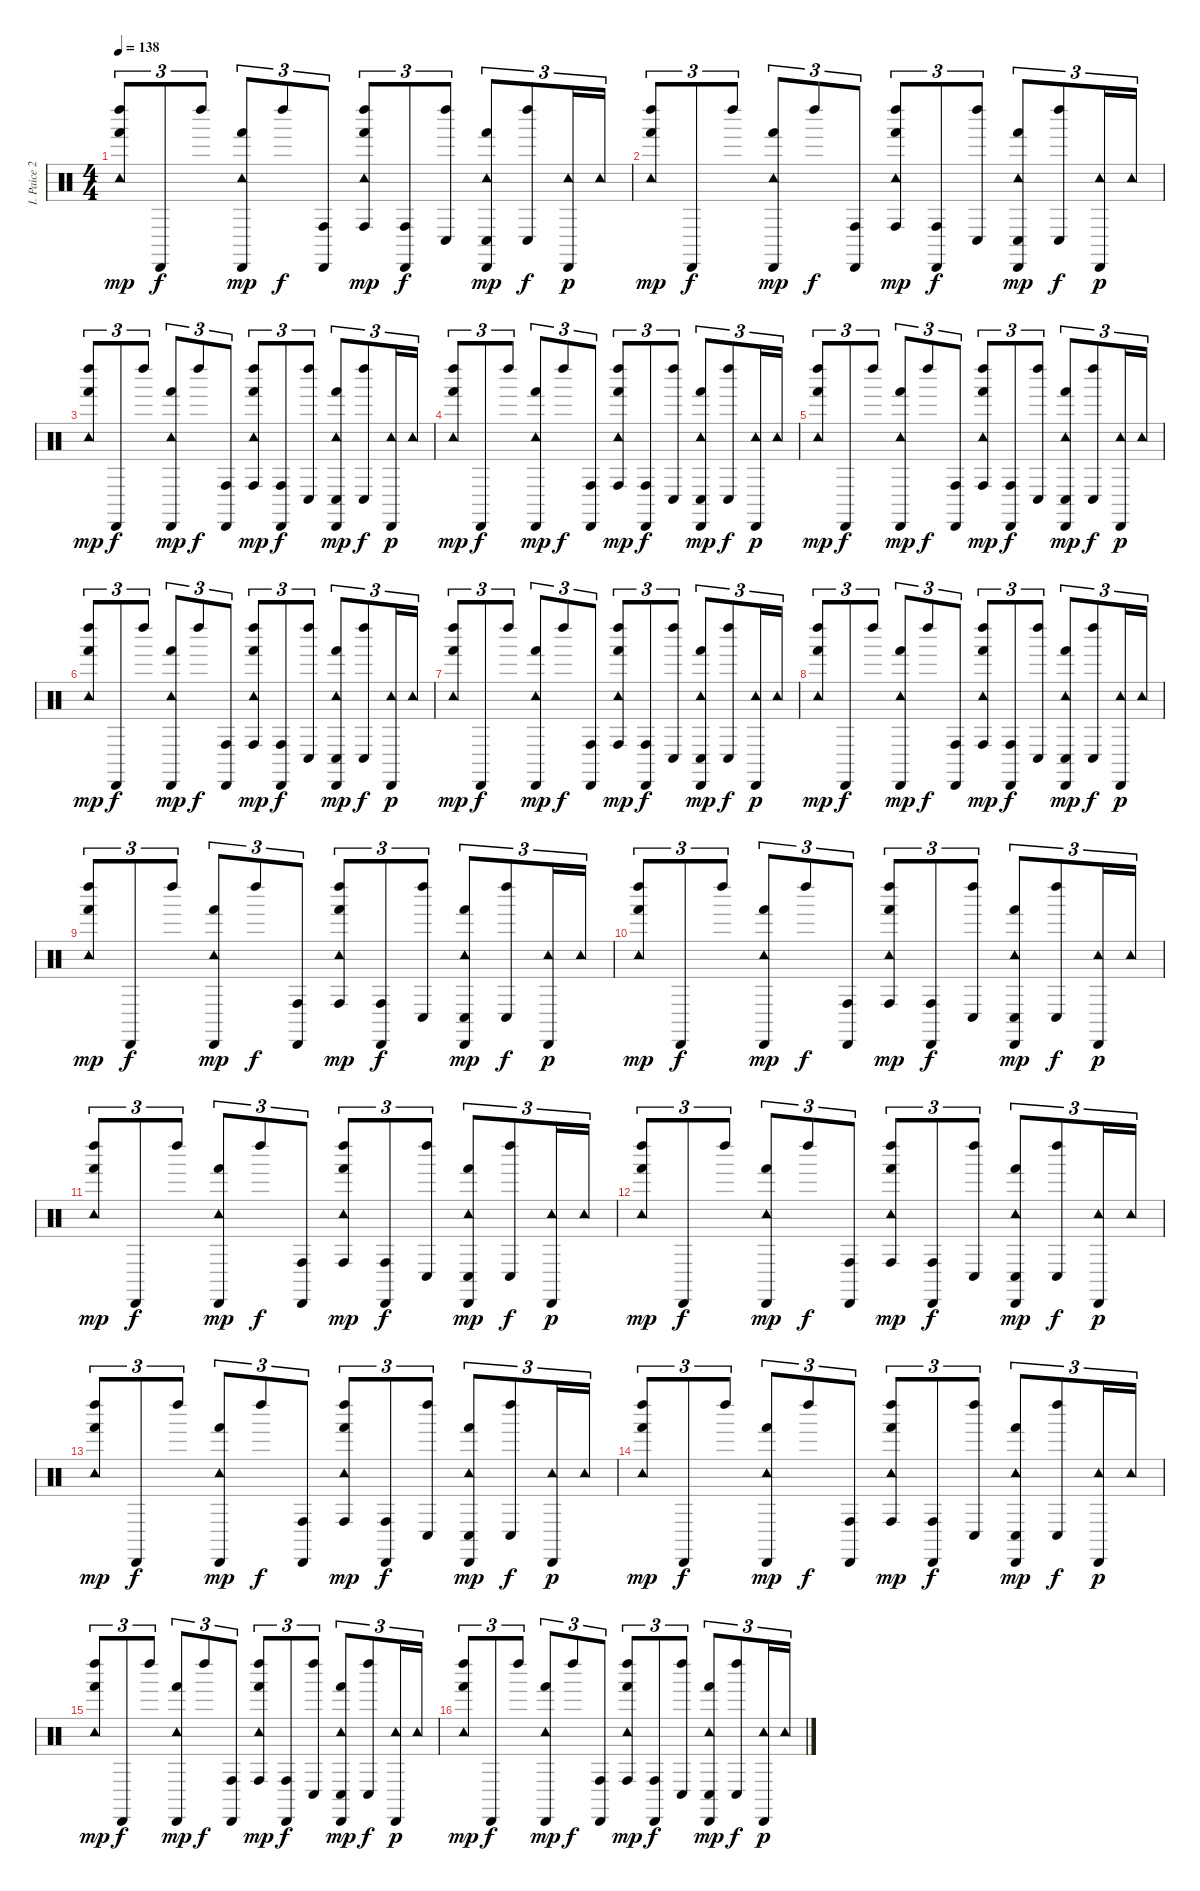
\track ("I. Paice 2" "I. Paice 2") {instrument percussion}
\staff {score}
\articulation defaults
\ts (4 4)
\tempo 138
\clef neutral
\ks c
("Tambourine (hit)" "Left Maraca (hit)" "Hand (hit)").8{tu (3 2) dy mp} "Cabasa (hit)".8{tu (3 2) dy f} "Left Maraca (hit)".8{tu (3 2)} ("Tambourine (hit)" "Cabasa (hit)" "Hand (hit)").8{tu (3 2) dy mp} "Left Maraca (hit)".8{tu (3 2) dy f} ("Cabasa (hit)" "Conga high (hit)").8{tu (3 2)} ("Tambourine (hit)" "Left Maraca (hit)" "Hand (hit)" "Conga high (hit)").8{tu (3 2) dy mp} ("Cabasa (hit)" "Conga high (hit)").8{tu (3 2) dy f} ("Left Maraca (hit)" "Conga low (hit)").8{tu (3 2)} ("Tambourine (hit)" "Cabasa (hit)" "Hand (hit)" "Conga low (hit)").8{tu (3 2) dy mp} ("Left Maraca (hit)" "Conga low (hit)").8{tu (3 2) dy f} ("Tambourine (hit)" "Cabasa (hit)").16{tu (3 2) dy p} "Tambourine (hit)".16{tu (3 2)} |
("Tambourine (hit)" "Left Maraca (hit)" "Hand (hit)").8{tu (3 2) dy mp} "Cabasa (hit)".8{tu (3 2) dy f} "Left Maraca (hit)".8{tu (3 2)} ("Tambourine (hit)" "Cabasa (hit)" "Hand (hit)").8{tu (3 2) dy mp} "Left Maraca (hit)".8{tu (3 2) dy f} ("Cabasa (hit)" "Conga high (hit)").8{tu (3 2)} ("Tambourine (hit)" "Left Maraca (hit)" "Hand (hit)" "Conga high (hit)").8{tu (3 2) dy mp} ("Cabasa (hit)" "Conga high (hit)").8{tu (3 2) dy f} ("Left Maraca (hit)" "Conga low (hit)").8{tu (3 2)} ("Tambourine (hit)" "Cabasa (hit)" "Hand (hit)" "Conga low (hit)").8{tu (3 2) dy mp} ("Left Maraca (hit)" "Conga low (hit)").8{tu (3 2) dy f} ("Tambourine (hit)" "Cabasa (hit)").16{tu (3 2) dy p} "Tambourine (hit)".16{tu (3 2)} |
("Tambourine (hit)" "Left Maraca (hit)" "Hand (hit)").8{tu (3 2) dy mp} "Cabasa (hit)".8{tu (3 2) dy f} "Left Maraca (hit)".8{tu (3 2)} ("Tambourine (hit)" "Cabasa (hit)" "Hand (hit)").8{tu (3 2) dy mp} "Left Maraca (hit)".8{tu (3 2) dy f} ("Cabasa (hit)" "Conga high (hit)").8{tu (3 2)} ("Tambourine (hit)" "Left Maraca (hit)" "Hand (hit)" "Conga high (hit)").8{tu (3 2) dy mp} ("Cabasa (hit)" "Conga high (hit)").8{tu (3 2) dy f} ("Left Maraca (hit)" "Conga low (hit)").8{tu (3 2)} ("Tambourine (hit)" "Cabasa (hit)" "Hand (hit)" "Conga low (hit)").8{tu (3 2) dy mp} ("Left Maraca (hit)" "Conga low (hit)").8{tu (3 2) dy f} ("Tambourine (hit)" "Cabasa (hit)").16{tu (3 2) dy p} "Tambourine (hit)".16{tu (3 2)} |
("Tambourine (hit)" "Left Maraca (hit)" "Hand (hit)").8{tu (3 2) dy mp} "Cabasa (hit)".8{tu (3 2) dy f} "Left Maraca (hit)".8{tu (3 2)} ("Tambourine (hit)" "Cabasa (hit)" "Hand (hit)").8{tu (3 2) dy mp} "Left Maraca (hit)".8{tu (3 2) dy f} ("Cabasa (hit)" "Conga high (hit)").8{tu (3 2)} ("Tambourine (hit)" "Left Maraca (hit)" "Hand (hit)" "Conga high (hit)").8{tu (3 2) dy mp} ("Cabasa (hit)" "Conga high (hit)").8{tu (3 2) dy f} ("Left Maraca (hit)" "Conga low (hit)").8{tu (3 2)} ("Tambourine (hit)" "Cabasa (hit)" "Hand (hit)" "Conga low (hit)").8{tu (3 2) dy mp} ("Left Maraca (hit)" "Conga low (hit)").8{tu (3 2) dy f} ("Tambourine (hit)" "Cabasa (hit)").16{tu (3 2) dy p} "Tambourine (hit)".16{tu (3 2)} |
("Tambourine (hit)" "Left Maraca (hit)" "Hand (hit)").8{tu (3 2) dy mp} "Cabasa (hit)".8{tu (3 2) dy f} "Left Maraca (hit)".8{tu (3 2)} ("Tambourine (hit)" "Cabasa (hit)" "Hand (hit)").8{tu (3 2) dy mp} "Left Maraca (hit)".8{tu (3 2) dy f} ("Cabasa (hit)" "Conga high (hit)").8{tu (3 2)} ("Tambourine (hit)" "Left Maraca (hit)" "Hand (hit)" "Conga high (hit)").8{tu (3 2) dy mp} ("Cabasa (hit)" "Conga high (hit)").8{tu (3 2) dy f} ("Left Maraca (hit)" "Conga low (hit)").8{tu (3 2)} ("Tambourine (hit)" "Cabasa (hit)" "Hand (hit)" "Conga low (hit)").8{tu (3 2) dy mp} ("Left Maraca (hit)" "Conga low (hit)").8{tu (3 2) dy f} ("Tambourine (hit)" "Cabasa (hit)").16{tu (3 2) dy p} "Tambourine (hit)".16{tu (3 2)} |
("Tambourine (hit)" "Left Maraca (hit)" "Hand (hit)").8{tu (3 2) dy mp} "Cabasa (hit)".8{tu (3 2) dy f} "Left Maraca (hit)".8{tu (3 2)} ("Tambourine (hit)" "Cabasa (hit)" "Hand (hit)").8{tu (3 2) dy mp} "Left Maraca (hit)".8{tu (3 2) dy f} ("Cabasa (hit)" "Conga high (hit)").8{tu (3 2)} ("Tambourine (hit)" "Left Maraca (hit)" "Hand (hit)" "Conga high (hit)").8{tu (3 2) dy mp} ("Cabasa (hit)" "Conga high (hit)").8{tu (3 2) dy f} ("Left Maraca (hit)" "Conga low (hit)").8{tu (3 2)} ("Tambourine (hit)" "Cabasa (hit)" "Hand (hit)" "Conga low (hit)").8{tu (3 2) dy mp} ("Left Maraca (hit)" "Conga low (hit)").8{tu (3 2) dy f} ("Tambourine (hit)" "Cabasa (hit)").16{tu (3 2) dy p} "Tambourine (hit)".16{tu (3 2)} |
("Tambourine (hit)" "Left Maraca (hit)" "Hand (hit)").8{tu (3 2) dy mp} "Cabasa (hit)".8{tu (3 2) dy f} "Left Maraca (hit)".8{tu (3 2)} ("Tambourine (hit)" "Cabasa (hit)" "Hand (hit)").8{tu (3 2) dy mp} "Left Maraca (hit)".8{tu (3 2) dy f} ("Cabasa (hit)" "Conga high (hit)").8{tu (3 2)} ("Tambourine (hit)" "Left Maraca (hit)" "Hand (hit)" "Conga high (hit)").8{tu (3 2) dy mp} ("Cabasa (hit)" "Conga high (hit)").8{tu (3 2) dy f} ("Left Maraca (hit)" "Conga low (hit)").8{tu (3 2)} ("Tambourine (hit)" "Cabasa (hit)" "Hand (hit)" "Conga low (hit)").8{tu (3 2) dy mp} ("Left Maraca (hit)" "Conga low (hit)").8{tu (3 2) dy f} ("Tambourine (hit)" "Cabasa (hit)").16{tu (3 2) dy p} "Tambourine (hit)".16{tu (3 2)} |
("Tambourine (hit)" "Left Maraca (hit)" "Hand (hit)").8{tu (3 2) dy mp} "Cabasa (hit)".8{tu (3 2) dy f} "Left Maraca (hit)".8{tu (3 2)} ("Tambourine (hit)" "Cabasa (hit)" "Hand (hit)").8{tu (3 2) dy mp} "Left Maraca (hit)".8{tu (3 2) dy f} ("Cabasa (hit)" "Conga high (hit)").8{tu (3 2)} ("Tambourine (hit)" "Left Maraca (hit)" "Hand (hit)" "Conga high (hit)").8{tu (3 2) dy mp} ("Cabasa (hit)" "Conga high (hit)").8{tu (3 2) dy f} ("Left Maraca (hit)" "Conga low (hit)").8{tu (3 2)} ("Tambourine (hit)" "Cabasa (hit)" "Hand (hit)" "Conga low (hit)").8{tu (3 2) dy mp} ("Left Maraca (hit)" "Conga low (hit)").8{tu (3 2) dy f} ("Tambourine (hit)" "Cabasa (hit)").16{tu (3 2) dy p} "Tambourine (hit)".16{tu (3 2)} |
("Tambourine (hit)" "Left Maraca (hit)" "Hand (hit)").8{tu (3 2) dy mp} "Cabasa (hit)".8{tu (3 2) dy f} "Left Maraca (hit)".8{tu (3 2)} ("Tambourine (hit)" "Cabasa (hit)" "Hand (hit)").8{tu (3 2) dy mp} "Left Maraca (hit)".8{tu (3 2) dy f} ("Cabasa (hit)" "Conga high (hit)").8{tu (3 2)} ("Tambourine (hit)" "Left Maraca (hit)" "Hand (hit)" "Conga high (hit)").8{tu (3 2) dy mp} ("Cabasa (hit)" "Conga high (hit)").8{tu (3 2) dy f} ("Left Maraca (hit)" "Conga low (hit)").8{tu (3 2)} ("Tambourine (hit)" "Cabasa (hit)" "Hand (hit)" "Conga low (hit)").8{tu (3 2) dy mp} ("Left Maraca (hit)" "Conga low (hit)").8{tu (3 2) dy f} ("Tambourine (hit)" "Cabasa (hit)").16{tu (3 2) dy p} "Tambourine (hit)".16{tu (3 2)} |
("Tambourine (hit)" "Left Maraca (hit)" "Hand (hit)").8{tu (3 2) dy mp} "Cabasa (hit)".8{tu (3 2) dy f} "Left Maraca (hit)".8{tu (3 2)} ("Tambourine (hit)" "Cabasa (hit)" "Hand (hit)").8{tu (3 2) dy mp} "Left Maraca (hit)".8{tu (3 2) dy f} ("Cabasa (hit)" "Conga high (hit)").8{tu (3 2)} ("Tambourine (hit)" "Left Maraca (hit)" "Hand (hit)" "Conga high (hit)").8{tu (3 2) dy mp} ("Cabasa (hit)" "Conga high (hit)").8{tu (3 2) dy f} ("Left Maraca (hit)" "Conga low (hit)").8{tu (3 2)} ("Tambourine (hit)" "Cabasa (hit)" "Hand (hit)" "Conga low (hit)").8{tu (3 2) dy mp} ("Left Maraca (hit)" "Conga low (hit)").8{tu (3 2) dy f} ("Tambourine (hit)" "Cabasa (hit)").16{tu (3 2) dy p} "Tambourine (hit)".16{tu (3 2)} |
("Tambourine (hit)" "Left Maraca (hit)" "Hand (hit)").8{tu (3 2) dy mp} "Cabasa (hit)".8{tu (3 2) dy f} "Left Maraca (hit)".8{tu (3 2)} ("Tambourine (hit)" "Cabasa (hit)" "Hand (hit)").8{tu (3 2) dy mp} "Left Maraca (hit)".8{tu (3 2) dy f} ("Cabasa (hit)" "Conga high (hit)").8{tu (3 2)} ("Tambourine (hit)" "Left Maraca (hit)" "Hand (hit)" "Conga high (hit)").8{tu (3 2) dy mp} ("Cabasa (hit)" "Conga high (hit)").8{tu (3 2) dy f} ("Left Maraca (hit)" "Conga low (hit)").8{tu (3 2)} ("Tambourine (hit)" "Cabasa (hit)" "Hand (hit)" "Conga low (hit)").8{tu (3 2) dy mp} ("Left Maraca (hit)" "Conga low (hit)").8{tu (3 2) dy f} ("Tambourine (hit)" "Cabasa (hit)").16{tu (3 2) dy p} "Tambourine (hit)".16{tu (3 2)} |
("Tambourine (hit)" "Left Maraca (hit)" "Hand (hit)").8{tu (3 2) dy mp} "Cabasa (hit)".8{tu (3 2) dy f} "Left Maraca (hit)".8{tu (3 2)} ("Tambourine (hit)" "Cabasa (hit)" "Hand (hit)").8{tu (3 2) dy mp} "Left Maraca (hit)".8{tu (3 2) dy f} ("Cabasa (hit)" "Conga high (hit)").8{tu (3 2)} ("Tambourine (hit)" "Left Maraca (hit)" "Hand (hit)" "Conga high (hit)").8{tu (3 2) dy mp} ("Cabasa (hit)" "Conga high (hit)").8{tu (3 2) dy f} ("Left Maraca (hit)" "Conga low (hit)").8{tu (3 2)} ("Tambourine (hit)" "Cabasa (hit)" "Hand (hit)" "Conga low (hit)").8{tu (3 2) dy mp} ("Left Maraca (hit)" "Conga low (hit)").8{tu (3 2) dy f} ("Tambourine (hit)" "Cabasa (hit)").16{tu (3 2) dy p} "Tambourine (hit)".16{tu (3 2)} |
("Tambourine (hit)" "Left Maraca (hit)" "Hand (hit)").8{tu (3 2) dy mp} "Cabasa (hit)".8{tu (3 2) dy f} "Left Maraca (hit)".8{tu (3 2)} ("Tambourine (hit)" "Cabasa (hit)" "Hand (hit)").8{tu (3 2) dy mp} "Left Maraca (hit)".8{tu (3 2) dy f} ("Cabasa (hit)" "Conga high (hit)").8{tu (3 2)} ("Tambourine (hit)" "Left Maraca (hit)" "Hand (hit)" "Conga high (hit)").8{tu (3 2) dy mp} ("Cabasa (hit)" "Conga high (hit)").8{tu (3 2) dy f} ("Left Maraca (hit)" "Conga low (hit)").8{tu (3 2)} ("Tambourine (hit)" "Cabasa (hit)" "Hand (hit)" "Conga low (hit)").8{tu (3 2) dy mp} ("Left Maraca (hit)" "Conga low (hit)").8{tu (3 2) dy f} ("Tambourine (hit)" "Cabasa (hit)").16{tu (3 2) dy p} "Tambourine (hit)".16{tu (3 2)} |
("Tambourine (hit)" "Left Maraca (hit)" "Hand (hit)").8{tu (3 2) dy mp} "Cabasa (hit)".8{tu (3 2) dy f} "Left Maraca (hit)".8{tu (3 2)} ("Tambourine (hit)" "Cabasa (hit)" "Hand (hit)").8{tu (3 2) dy mp} "Left Maraca (hit)".8{tu (3 2) dy f} ("Cabasa (hit)" "Conga high (hit)").8{tu (3 2)} ("Tambourine (hit)" "Left Maraca (hit)" "Hand (hit)" "Conga high (hit)").8{tu (3 2) dy mp} ("Cabasa (hit)" "Conga high (hit)").8{tu (3 2) dy f} ("Left Maraca (hit)" "Conga low (hit)").8{tu (3 2)} ("Tambourine (hit)" "Cabasa (hit)" "Hand (hit)" "Conga low (hit)").8{tu (3 2) dy mp} ("Left Maraca (hit)" "Conga low (hit)").8{tu (3 2) dy f} ("Tambourine (hit)" "Cabasa (hit)").16{tu (3 2) dy p} "Tambourine (hit)".16{tu (3 2)} |
("Tambourine (hit)" "Left Maraca (hit)" "Hand (hit)").8{tu (3 2) dy mp} "Cabasa (hit)".8{tu (3 2) dy f} "Left Maraca (hit)".8{tu (3 2)} ("Tambourine (hit)" "Cabasa (hit)" "Hand (hit)").8{tu (3 2) dy mp} "Left Maraca (hit)".8{tu (3 2) dy f} ("Cabasa (hit)" "Conga high (hit)").8{tu (3 2)} ("Tambourine (hit)" "Left Maraca (hit)" "Hand (hit)" "Conga high (hit)").8{tu (3 2) dy mp} ("Cabasa (hit)" "Conga high (hit)").8{tu (3 2) dy f} ("Left Maraca (hit)" "Conga low (hit)").8{tu (3 2)} ("Tambourine (hit)" "Cabasa (hit)" "Hand (hit)" "Conga low (hit)").8{tu (3 2) dy mp} ("Left Maraca (hit)" "Conga low (hit)").8{tu (3 2) dy f} ("Tambourine (hit)" "Cabasa (hit)").16{tu (3 2) dy p} "Tambourine (hit)".16{tu (3 2)} |
("Tambourine (hit)" "Left Maraca (hit)" "Hand (hit)").8{tu (3 2) dy mp} "Cabasa (hit)".8{tu (3 2) dy f} "Left Maraca (hit)".8{tu (3 2)} ("Tambourine (hit)" "Cabasa (hit)" "Hand (hit)").8{tu (3 2) dy mp} "Left Maraca (hit)".8{tu (3 2) dy f} ("Cabasa (hit)" "Conga high (hit)").8{tu (3 2)} ("Tambourine (hit)" "Left Maraca (hit)" "Hand (hit)" "Conga high (hit)").8{tu (3 2) dy mp} ("Cabasa (hit)" "Conga high (hit)").8{tu (3 2) dy f} ("Left Maraca (hit)" "Conga low (hit)").8{tu (3 2)} ("Tambourine (hit)" "Cabasa (hit)" "Hand (hit)" "Conga low (hit)").8{tu (3 2) dy mp} ("Left Maraca (hit)" "Conga low (hit)").8{tu (3 2) dy f} ("Tambourine (hit)" "Cabasa (hit)").16{tu (3 2) dy p} "Tambourine (hit)".16{tu (3 2)}
